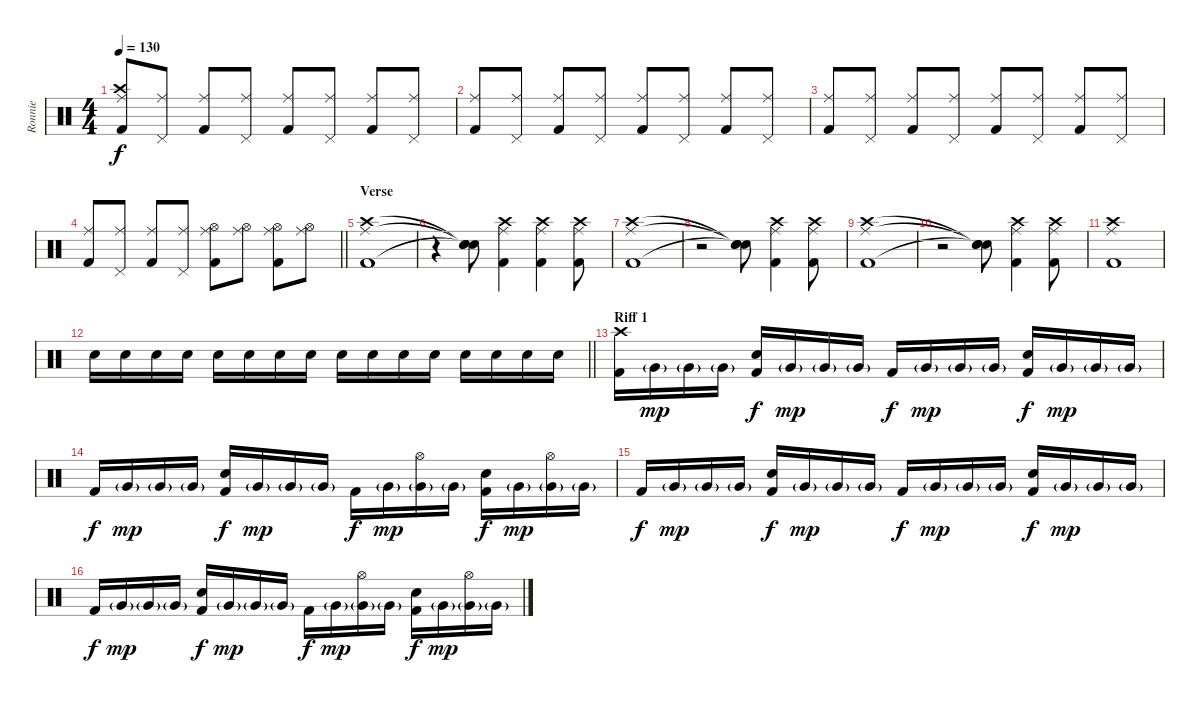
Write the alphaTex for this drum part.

\track ("Ronnie" "Ronnie") {instrument percussion}
\staff {score}
\articulation defaults
\ts (4 4)
\tempo 130
\clef neutral
\ks c
("Ride (middle)" "Crash high (hit)" "Kick (hit) 2").8{dy f} ("Ride (middle)" "Pedal Hi-Hat (hit)").8 ("Ride (middle)" "Kick (hit) 2").8 ("Ride (middle)" "Pedal Hi-Hat (hit)").8 ("Ride (middle)" "Kick (hit) 2").8 ("Ride (middle)" "Pedal Hi-Hat (hit)").8 ("Ride (middle)" "Kick (hit) 2").8 ("Ride (middle)" "Pedal Hi-Hat (hit)").8 |
("Ride (middle)" "Kick (hit) 2").8 ("Ride (middle)" "Pedal Hi-Hat (hit)").8 ("Ride (middle)" "Kick (hit) 2").8 ("Ride (middle)" "Pedal Hi-Hat (hit)").8 ("Ride (middle)" "Kick (hit) 2").8 ("Ride (middle)" "Pedal Hi-Hat (hit)").8 ("Ride (middle)" "Kick (hit) 2").8 ("Ride (middle)" "Pedal Hi-Hat (hit)").8 |
("Ride (middle)" "Kick (hit) 2").8 ("Ride (middle)" "Pedal Hi-Hat (hit)").8 ("Ride (middle)" "Kick (hit) 2").8 ("Ride (middle)" "Pedal Hi-Hat (hit)").8 ("Ride (middle)" "Kick (hit) 2").8 ("Ride (middle)" "Pedal Hi-Hat (hit)").8 ("Ride (middle)" "Kick (hit) 2").8 ("Ride (middle)" "Pedal Hi-Hat (hit)").8 |
\barLineRight lightlight
("Ride (middle)" "Kick (hit) 2").8 ("Ride (middle)" "Pedal Hi-Hat (hit)").8 ("Ride (middle)" "Kick (hit) 2").8 ("Ride (middle)" "Pedal Hi-Hat (hit)").8 ("Ride (middle)" "Hi-Hat (open)" "Kick (hit) 2").8 ("Ride (middle)" "Hi-Hat (open)").8 ("Ride (middle)" "Hi-Hat (open)" "Kick (hit) 2").8 ("Ride (middle)" "Hi-Hat (open)").8 |
\section ("" "Verse")
("Crash high (hit)" "Kick (hit) 2" "Ride (middle)").1 |
r.4 ("Snare (hit)"{t} "Snare (hit)"{t} "Snare (hit)"{t}).8 ("Crash high (hit)" "Kick (hit) 2" "Ride (middle)").4 ("Crash high (hit)" "Kick (hit) 2" "Ride (middle)").4 ("Crash high (hit)" "Kick (hit) 2" "Ride (middle)").8 |
("Crash high (hit)" "Kick (hit) 2" "Ride (middle)").1 |
r.2 ("Snare (hit)"{t} "Snare (hit)"{t} "Snare (hit)"{t}).8 ("Crash high (hit)" "Kick (hit) 2" "Ride (middle)").4 ("Crash high (hit)" "Kick (hit) 2" "Ride (middle)").8 |
("Crash high (hit)" "Kick (hit) 2" "Ride (middle)").1 |
r.2 ("Snare (hit)"{t} "Snare (hit)"{t} "Snare (hit)"{t}).8 ("Crash high (hit)" "Kick (hit) 2" "Ride (middle)").4 ("Crash high (hit)" "Kick (hit) 2" "Ride (middle)").8 |
("Crash high (hit)" "Kick (hit) 2" "Ride (middle)").1 |
\barLineRight lightlight "Snare (hit) 2".16 "Snare (hit) 2".16 "Snare (hit) 2".16 "Snare (hit) 2".16 "Snare (hit) 2".16 "Snare (hit) 2".16 "Snare (hit) 2".16 "Snare (hit) 2".16 "Snare (hit) 2".16 "Snare (hit) 2".16 "Snare (hit) 2".16 "Snare (hit) 2".16 "Snare (hit) 2".16 "Snare (hit) 2".16 "Snare (hit) 2".16 "Snare (hit) 2".16
|
\section ("" "Riff 1")
("Kick (hit) 2" "Crash high (hit)").16 "Very Low Tom (hit)"{g}.16{dy mp} "Very Low Tom (hit)"{g}.16 "Very Low Tom (hit)"{g}.16 ("Electric Snare (hit)" "Kick (hit) 2").16{dy f} "Very Low Tom (hit)"{g}.16{dy mp} "Very Low Tom (hit)"{g}.16 "Very Low Tom (hit)"{g}.16 "Kick (hit) 2".16{dy f} "Very Low Tom (hit)"{g}.16{dy mp} "Very Low Tom (hit)"{g}.16 "Very Low Tom (hit)"{g}.16 ("Electric Snare (hit)" "Kick (hit) 2").16{dy f} "Very Low Tom (hit)"{g}.16{dy mp} "Very Low Tom (hit)"{g}.16 "Very Low Tom (hit)"{g}.16 |
"Kick (hit) 2".16{dy f} "Very Low Tom (hit)"{g}.16{dy mp} "Very Low Tom (hit)"{g}.16 "Very Low Tom (hit)"{g}.16 ("Electric Snare (hit)" "Kick (hit) 2").16{dy f} "Very Low Tom (hit)"{g}.16{dy mp} "Very Low Tom (hit)"{g}.16 "Very Low Tom (hit)"{g}.16 "Kick (hit) 2".16{dy f} "Very Low Tom (hit)"{g}.16{dy mp} ("Very Low Tom (hit)"{g} "Hi-Hat (open)").16 "Very Low Tom (hit)"{g}.16 ("Electric Snare (hit)" "Kick (hit) 2").16{dy f} "Very Low Tom (hit)"{g}.16{dy mp} ("Very Low Tom (hit)"{g} "Hi-Hat (open)").16 "Very Low Tom (hit)"{g}.16 |
"Kick (hit) 2".16{dy f} "Very Low Tom (hit)"{g}.16{dy mp} "Very Low Tom (hit)"{g}.16 "Very Low Tom (hit)"{g}.16 ("Electric Snare (hit)" "Kick (hit) 2").16{dy f} "Very Low Tom (hit)"{g}.16{dy mp} "Very Low Tom (hit)"{g}.16 "Very Low Tom (hit)"{g}.16 "Kick (hit) 2".16{dy f} "Very Low Tom (hit)"{g}.16{dy mp} "Very Low Tom (hit)"{g}.16 "Very Low Tom (hit)"{g}.16 ("Electric Snare (hit)" "Kick (hit) 2").16{dy f} "Very Low Tom (hit)"{g}.16{dy mp} "Very Low Tom (hit)"{g}.16 "Very Low Tom (hit)"{g}.16 |
"Kick (hit) 2".16{dy f} "Very Low Tom (hit)"{g}.16{dy mp} "Very Low Tom (hit)"{g}.16 "Very Low Tom (hit)"{g}.16 ("Electric Snare (hit)" "Kick (hit) 2").16{dy f} "Very Low Tom (hit)"{g}.16{dy mp} "Very Low Tom (hit)"{g}.16 "Very Low Tom (hit)"{g}.16 "Kick (hit) 2".16{dy f} "Very Low Tom (hit)"{g}.16{dy mp} ("Very Low Tom (hit)"{g} "Hi-Hat (open)").16 "Very Low Tom (hit)"{g}.16 ("Electric Snare (hit)" "Kick (hit) 2").16{dy f} "Very Low Tom (hit)"{g}.16{dy mp} ("Very Low Tom (hit)"{g} "Hi-Hat (open)").16 "Very Low Tom (hit)"{g}.16
